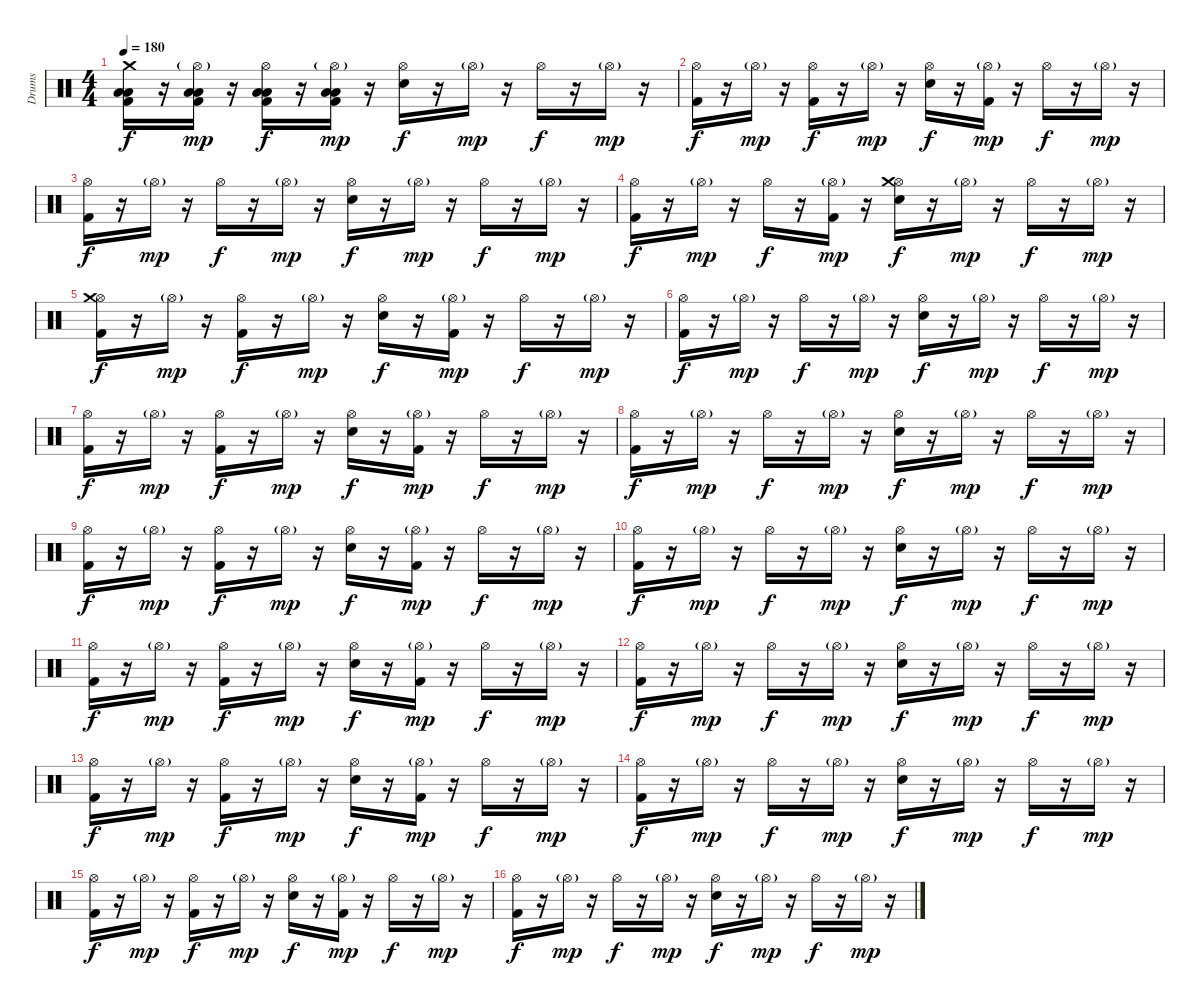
\track ("Drums" "Drums") {instrument percussion}
\staff {score}
\articulation defaults
\ts (4 4)
\tempo 180
\clef neutral
\ks c
("Crash medium (hit)" "Kick (hit) 2" "Low Floor Tom (hit)" "Low Tom (hit)").16{dy f} r.16 ("Hi-Hat (open)"{g} "Kick (hit) 2" "Low Floor Tom (hit)" "Low Tom (hit)").16{dy mp} r.16 ("Hi-Hat (open)" "Kick (hit) 2" "Low Floor Tom (hit)" "Low Tom (hit)").16{dy f} r.16 ("Hi-Hat (open)"{g} "Kick (hit) 2" "Low Floor Tom (hit)" "Low Tom (hit)").16{dy mp} r.16 ("Hi-Hat (open)" "Electric Snare (hit)").16{dy f} r.16 "Hi-Hat (open)"{g}.16{dy mp} r.16 "Hi-Hat (open)".16{dy f} r.16 "Hi-Hat (open)"{g}.16{dy mp} r.16 |
("Hi-Hat (open)" "Kick (hit) 2").16{dy f} r.16 "Hi-Hat (open)"{g}.16{dy mp} r.16 ("Hi-Hat (open)" "Kick (hit) 2").16{dy f} r.16 "Hi-Hat (open)"{g}.16{dy mp} r.16 ("Hi-Hat (open)" "Electric Snare (hit)").16{dy f} r.16 ("Hi-Hat (open)"{g} "Kick (hit) 2").16{dy mp} r.16 "Hi-Hat (open)".16{dy f} r.16 "Hi-Hat (open)"{g}.16{dy mp} r.16 |
("Hi-Hat (open)" "Kick (hit) 2").16{dy f} r.16 "Hi-Hat (open)"{g}.16{dy mp} r.16 "Hi-Hat (open)".16{dy f} r.16 "Hi-Hat (open)"{g}.16{dy mp} r.16 ("Hi-Hat (open)" "Electric Snare (hit)").16{dy f} r.16 "Hi-Hat (open)"{g}.16{dy mp} r.16 "Hi-Hat (open)".16{dy f} r.16 "Hi-Hat (open)"{g}.16{dy mp} r.16 |
("Hi-Hat (open)" "Kick (hit) 2").16{dy f} r.16 "Hi-Hat (open)"{g}.16{dy mp} r.16 "Hi-Hat (open)".16{dy f} r.16 ("Hi-Hat (open)"{g} "Kick (hit) 2").16{dy mp} r.16 ("Hi-Hat (open)" "Electric Snare (hit)" "Crash medium (hit)").16{dy f} r.16 "Hi-Hat (open)"{g}.16{dy mp} r.16 "Hi-Hat (open)".16{dy f} r.16 "Hi-Hat (open)"{g}.16{dy mp} r.16 |
("Hi-Hat (open)" "Crash medium (hit)" "Kick (hit) 2").16{dy f} r.16 "Hi-Hat (open)"{g}.16{dy mp} r.16 ("Hi-Hat (open)" "Kick (hit) 2").16{dy f} r.16 "Hi-Hat (open)"{g}.16{dy mp} r.16 ("Hi-Hat (open)" "Electric Snare (hit)").16{dy f} r.16 ("Hi-Hat (open)"{g} "Kick (hit) 2").16{dy mp} r.16 "Hi-Hat (open)".16{dy f} r.16 "Hi-Hat (open)"{g}.16{dy mp} r.16 |
("Hi-Hat (open)" "Kick (hit) 2").16{dy f} r.16 "Hi-Hat (open)"{g}.16{dy mp} r.16 "Hi-Hat (open)".16{dy f} r.16 "Hi-Hat (open)"{g}.16{dy mp} r.16 ("Hi-Hat (open)" "Electric Snare (hit)").16{dy f} r.16 "Hi-Hat (open)"{g}.16{dy mp} r.16 "Hi-Hat (open)".16{dy f} r.16 "Hi-Hat (open)"{g}.16{dy mp} r.16 |
("Hi-Hat (open)" "Kick (hit) 2").16{dy f} r.16 "Hi-Hat (open)"{g}.16{dy mp} r.16 ("Hi-Hat (open)" "Kick (hit) 2").16{dy f} r.16 "Hi-Hat (open)"{g}.16{dy mp} r.16 ("Hi-Hat (open)" "Electric Snare (hit)").16{dy f} r.16 ("Hi-Hat (open)"{g} "Kick (hit) 2").16{dy mp} r.16 "Hi-Hat (open)".16{dy f} r.16 "Hi-Hat (open)"{g}.16{dy mp} r.16 |
("Hi-Hat (open)" "Kick (hit) 2").16{dy f} r.16 "Hi-Hat (open)"{g}.16{dy mp} r.16 "Hi-Hat (open)".16{dy f} r.16 "Hi-Hat (open)"{g}.16{dy mp} r.16 ("Hi-Hat (open)" "Electric Snare (hit)").16{dy f} r.16 "Hi-Hat (open)"{g}.16{dy mp} r.16 "Hi-Hat (open)".16{dy f} r.16 "Hi-Hat (open)"{g}.16{dy mp} r.16 |
("Hi-Hat (open)" "Kick (hit) 2").16{dy f} r.16 "Hi-Hat (open)"{g}.16{dy mp} r.16 ("Hi-Hat (open)" "Kick (hit) 2").16{dy f} r.16 "Hi-Hat (open)"{g}.16{dy mp} r.16 ("Hi-Hat (open)" "Electric Snare (hit)").16{dy f} r.16 ("Hi-Hat (open)"{g} "Kick (hit) 2").16{dy mp} r.16 "Hi-Hat (open)".16{dy f} r.16 "Hi-Hat (open)"{g}.16{dy mp} r.16 |
("Hi-Hat (open)" "Kick (hit) 2").16{dy f} r.16 "Hi-Hat (open)"{g}.16{dy mp} r.16 "Hi-Hat (open)".16{dy f} r.16 "Hi-Hat (open)"{g}.16{dy mp} r.16 ("Hi-Hat (open)" "Electric Snare (hit)").16{dy f} r.16 "Hi-Hat (open)"{g}.16{dy mp} r.16 "Hi-Hat (open)".16{dy f} r.16 "Hi-Hat (open)"{g}.16{dy mp} r.16 |
("Hi-Hat (open)" "Kick (hit) 2").16{dy f} r.16 "Hi-Hat (open)"{g}.16{dy mp} r.16 ("Hi-Hat (open)" "Kick (hit) 2").16{dy f} r.16 "Hi-Hat (open)"{g}.16{dy mp} r.16 ("Hi-Hat (open)" "Electric Snare (hit)").16{dy f} r.16 ("Hi-Hat (open)"{g} "Kick (hit) 2").16{dy mp} r.16 "Hi-Hat (open)".16{dy f} r.16 "Hi-Hat (open)"{g}.16{dy mp} r.16 |
("Hi-Hat (open)" "Kick (hit) 2").16{dy f} r.16 "Hi-Hat (open)"{g}.16{dy mp} r.16 "Hi-Hat (open)".16{dy f} r.16 "Hi-Hat (open)"{g}.16{dy mp} r.16 ("Hi-Hat (open)" "Electric Snare (hit)").16{dy f} r.16 "Hi-Hat (open)"{g}.16{dy mp} r.16 "Hi-Hat (open)".16{dy f} r.16 "Hi-Hat (open)"{g}.16{dy mp} r.16 |
("Hi-Hat (open)" "Kick (hit) 2").16{dy f} r.16 "Hi-Hat (open)"{g}.16{dy mp} r.16 ("Hi-Hat (open)" "Kick (hit) 2").16{dy f} r.16 "Hi-Hat (open)"{g}.16{dy mp} r.16 ("Hi-Hat (open)" "Electric Snare (hit)").16{dy f} r.16 ("Hi-Hat (open)"{g} "Kick (hit) 2").16{dy mp} r.16 "Hi-Hat (open)".16{dy f} r.16 "Hi-Hat (open)"{g}.16{dy mp} r.16 |
("Hi-Hat (open)" "Kick (hit) 2").16{dy f} r.16 "Hi-Hat (open)"{g}.16{dy mp} r.16 "Hi-Hat (open)".16{dy f} r.16 "Hi-Hat (open)"{g}.16{dy mp} r.16 ("Hi-Hat (open)" "Electric Snare (hit)").16{dy f} r.16 "Hi-Hat (open)"{g}.16{dy mp} r.16 "Hi-Hat (open)".16{dy f} r.16 "Hi-Hat (open)"{g}.16{dy mp} r.16 |
("Hi-Hat (open)" "Kick (hit) 2").16{dy f} r.16 "Hi-Hat (open)"{g}.16{dy mp} r.16 ("Hi-Hat (open)" "Kick (hit) 2").16{dy f} r.16 "Hi-Hat (open)"{g}.16{dy mp} r.16 ("Hi-Hat (open)" "Electric Snare (hit)").16{dy f} r.16 ("Hi-Hat (open)"{g} "Kick (hit) 2").16{dy mp} r.16 "Hi-Hat (open)".16{dy f} r.16 "Hi-Hat (open)"{g}.16{dy mp} r.16 |
("Hi-Hat (open)" "Kick (hit) 2").16{dy f} r.16 "Hi-Hat (open)"{g}.16{dy mp} r.16 "Hi-Hat (open)".16{dy f} r.16 "Hi-Hat (open)"{g}.16{dy mp} r.16 ("Hi-Hat (open)" "Electric Snare (hit)").16{dy f} r.16 "Hi-Hat (open)"{g}.16{dy mp} r.16 "Hi-Hat (open)".16{dy f} r.16 "Hi-Hat (open)"{g}.16{dy mp} r.16
